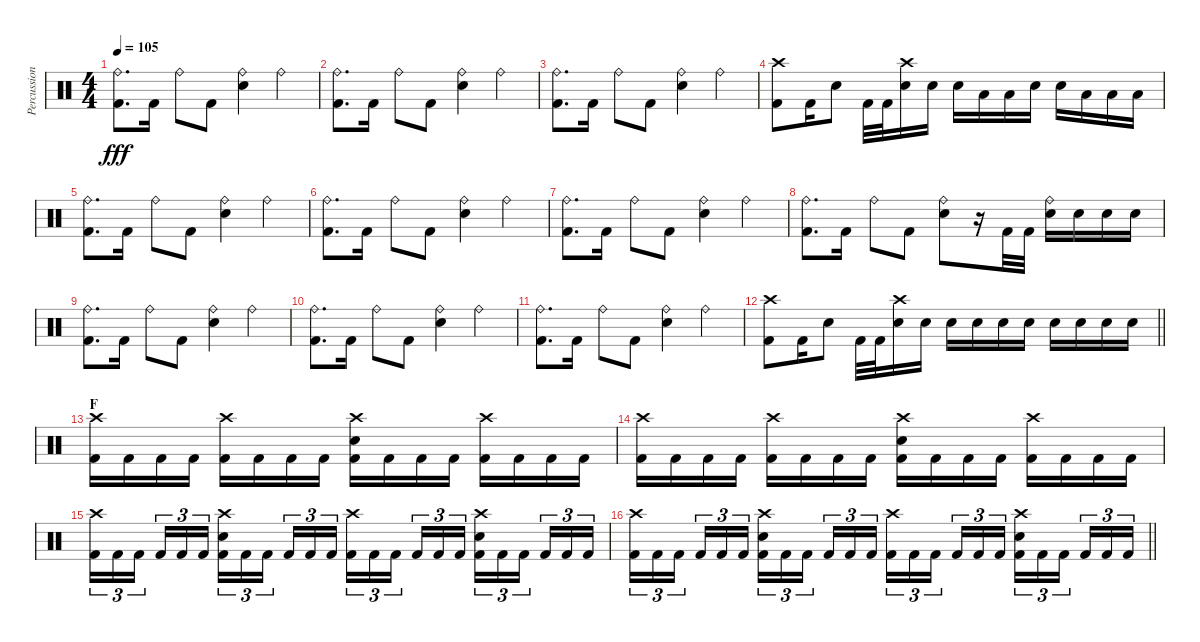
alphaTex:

\track ("Percussions" "Percussion") {instrument percussion}
\staff {score}
\articulation defaults
\ts (4 4)
\tempo 105
\clef neutral
\ks c
("Ride (bell)" "Kick (hit) 2").8{d dy fff} "Kick (hit) 2".16 "Ride (bell)".8 "Kick (hit) 2".8 ("Ride (bell)" "Snare (hit) 2").4 "Ride (bell)".4 |
("Ride (bell)" "Kick (hit) 2").8{d} "Kick (hit) 2".16 "Ride (bell)".8 "Kick (hit) 2".8 ("Ride (bell)" "Snare (hit) 2").4 "Ride (bell)".4 |
("Ride (bell)" "Kick (hit) 2").8{d} "Kick (hit) 2".16 "Ride (bell)".8 "Kick (hit) 2".8 ("Ride (bell)" "Snare (hit) 2").4 "Ride (bell)".4 |
("Crash high (hit)" "Kick (hit) 2").8 "Kick (hit) 2".16 "Snare (hit) 2".8 "Kick (hit) 2".32 "Kick (hit) 2".32 ("Crash high (hit)" "Snare (hit) 2").16 "Snare (hit) 2".16 "Snare (hit) 2".16 "Low Floor Tom (hit)".16 "Low Floor Tom (hit)".16 "Snare (hit) 2".16 "Snare (hit) 2".16 "Low Tom (hit)".16 "Low Tom (hit)".16 "Low Floor Tom (hit)".16 |
("Ride (bell)" "Kick (hit) 2").8{d} "Kick (hit) 2".16 "Ride (bell)".8 "Kick (hit) 2".8 ("Ride (bell)" "Snare (hit) 2").4 "Ride (bell)".4 |
("Ride (bell)" "Kick (hit) 2").8{d} "Kick (hit) 2".16 "Ride (bell)".8 "Kick (hit) 2".8 ("Ride (bell)" "Snare (hit) 2").4 "Ride (bell)".4 |
("Ride (bell)" "Kick (hit) 2").8{d} "Kick (hit) 2".16 "Ride (bell)".8 "Kick (hit) 2".8 ("Ride (bell)" "Snare (hit) 2").4 "Ride (bell)".4 |
("Ride (bell)" "Kick (hit) 2").8{d} "Kick (hit) 2".16 "Ride (bell)".8 "Kick (hit) 2".8 ("Ride (bell)" "Snare (hit) 2").8 r.16 "Kick (hit) 2".32 "Kick (hit) 2".32 ("Ride (bell)" "Snare (hit) 2").16 "Snare (hit) 2".16 "Snare (hit) 2".16 "Snare (hit) 2".16 |
("Ride (bell)" "Kick (hit) 2").8{d} "Kick (hit) 2".16 "Ride (bell)".8 "Kick (hit) 2".8 ("Ride (bell)" "Snare (hit) 2").4 "Ride (bell)".4 |
("Ride (bell)" "Kick (hit) 2").8{d} "Kick (hit) 2".16 "Ride (bell)".8 "Kick (hit) 2".8 ("Ride (bell)" "Snare (hit) 2").4 "Ride (bell)".4 |
("Ride (bell)" "Kick (hit) 2").8{d} "Kick (hit) 2".16 "Ride (bell)".8 "Kick (hit) 2".8 ("Ride (bell)" "Snare (hit) 2").4 "Ride (bell)".4 |
\barLineRight lightlight
("Crash high (hit)" "Kick (hit) 2").8 "Kick (hit) 2".16 "Snare (hit) 2".8 "Kick (hit) 2".32 "Kick (hit) 2".32 ("Crash high (hit)" "Snare (hit) 2").16 "Snare (hit) 2".16 "Snare (hit) 2".16 "Snare (hit) 2".16 "Snare (hit) 2".16 "Snare (hit) 2".16 "Snare (hit) 2".16 "Snare (hit) 2".16 "Snare (hit) 2".16 "Snare (hit) 2".16 |
\section ("" "F")
("Crash high (hit)" "Kick (hit) 2").16 "Kick (hit) 2".16 "Kick (hit) 2".16 "Kick (hit) 2".16 ("Crash high (hit)" "Kick (hit) 2").16 "Kick (hit) 2".16 "Kick (hit) 2".16 "Kick (hit) 2".16 ("Crash high (hit)" "Snare (hit) 2" "Kick (hit) 2").16 "Kick (hit) 2".16 "Kick (hit) 2".16 "Kick (hit) 2".16 ("Crash high (hit)" "Kick (hit) 2").16 "Kick (hit) 2".16 "Kick (hit) 2".16 "Kick (hit) 2".16 |
("Crash high (hit)" "Kick (hit) 2").16 "Kick (hit) 2".16 "Kick (hit) 2".16 "Kick (hit) 2".16 ("Crash high (hit)" "Kick (hit) 2").16 "Kick (hit) 2".16 "Kick (hit) 2".16 "Kick (hit) 2".16 ("Crash high (hit)" "Snare (hit) 2" "Kick (hit) 2").16 "Kick (hit) 2".16 "Kick (hit) 2".16 "Kick (hit) 2".16 ("Crash high (hit)" "Kick (hit) 2").16 "Kick (hit) 2".16 "Kick (hit) 2".16 "Kick (hit) 2".16 |
("Crash high (hit)" "Kick (hit) 2").16{tu (3 2)} "Kick (hit) 2".16{tu (3 2)} "Kick (hit) 2".16{tu (3 2) beam splitsecondary} "Kick (hit) 2".16{tu (3 2)} "Kick (hit) 2".16{tu (3 2)} "Kick (hit) 2".16{tu (3 2)} ("Crash high (hit)" "Snare (hit) 2" "Kick (hit) 2").16{tu (3 2)} "Kick (hit) 2".16{tu (3 2)} "Kick (hit) 2".16{tu (3 2) beam splitsecondary} "Kick (hit) 2".16{tu (3 2)} "Kick (hit) 2".16{tu (3 2)} "Kick (hit) 2".16{tu (3 2)} ("Crash high (hit)" "Kick (hit) 2").16{tu (3 2)} "Kick (hit) 2".16{tu (3 2)} "Kick (hit) 2".16{tu (3 2) beam splitsecondary} "Kick (hit) 2".16{tu (3 2)} "Kick (hit) 2".16{tu (3 2)} "Kick (hit) 2".16{tu (3 2)} ("Crash high (hit)" "Snare (hit) 2" "Kick (hit) 2").16{tu (3 2)} "Kick (hit) 2".16{tu (3 2)} "Kick (hit) 2".16{tu (3 2) beam splitsecondary} "Kick (hit) 2".16{tu (3 2)} "Kick (hit) 2".16{tu (3 2)} "Kick (hit) 2".16{tu (3 2)} |
\barLineRight lightlight
("Crash high (hit)" "Kick (hit) 2").16{tu (3 2)} "Kick (hit) 2".16{tu (3 2)} "Kick (hit) 2".16{tu (3 2) beam splitsecondary} "Kick (hit) 2".16{tu (3 2)} "Kick (hit) 2".16{tu (3 2)} "Kick (hit) 2".16{tu (3 2)} ("Crash high (hit)" "Snare (hit) 2" "Kick (hit) 2").16{tu (3 2)} "Kick (hit) 2".16{tu (3 2)} "Kick (hit) 2".16{tu (3 2) beam splitsecondary} "Kick (hit) 2".16{tu (3 2)} "Kick (hit) 2".16{tu (3 2)} "Kick (hit) 2".16{tu (3 2)} ("Crash high (hit)" "Kick (hit) 2").16{tu (3 2)} "Kick (hit) 2".16{tu (3 2)} "Kick (hit) 2".16{tu (3 2) beam splitsecondary} "Kick (hit) 2".16{tu (3 2)} "Kick (hit) 2".16{tu (3 2)} "Kick (hit) 2".16{tu (3 2)} ("Crash high (hit)" "Snare (hit) 2" "Kick (hit) 2").16{tu (3 2)} "Kick (hit) 2".16{tu (3 2)} "Kick (hit) 2".16{tu (3 2) beam splitsecondary} "Kick (hit) 2".16{tu (3 2)} "Kick (hit) 2".16{tu (3 2)} "Kick (hit) 2".16{tu (3 2)}
